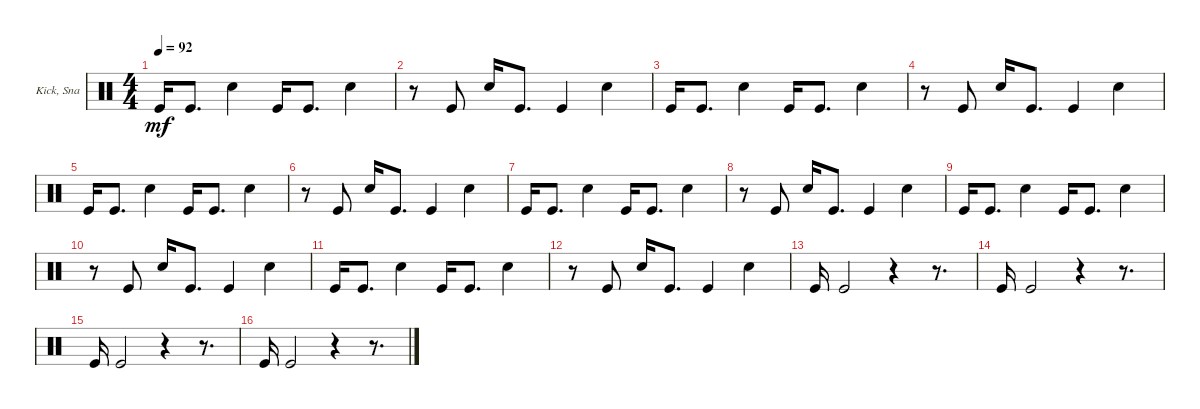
\bracketExtendMode groupsimilarinstruments
\firstSystemTrackNameOrientation horizontal
\otherSystemsTrackNameOrientation horizontal
\track (" Kick, Snare" " Kick, Sna") {instrument percussion}
\staff {score}
\articulation defaults
\ts (4 4)
\tempo 92
\clef neutral
\ks c "Kick (hit)".16{dy mf} "Kick (hit)".8{d} "Snare (hit) 2".4 "Kick (hit)".16 "Kick (hit)".8{d} "Snare (hit) 2".4
|
r.8 "Kick (hit)".8 "Snare (hit) 2".16 "Kick (hit)".8{d} "Kick (hit)".4 "Snare (hit) 2".4 |
"Kick (hit)".16 "Kick (hit)".8{d} "Snare (hit) 2".4 "Kick (hit)".16 "Kick (hit)".8{d} "Snare (hit) 2".4 |
r.8 "Kick (hit)".8 "Snare (hit) 2".16 "Kick (hit)".8{d} "Kick (hit)".4 "Snare (hit) 2".4 |
"Kick (hit)".16 "Kick (hit)".8{d} "Snare (hit) 2".4 "Kick (hit)".16 "Kick (hit)".8{d} "Snare (hit) 2".4 |
r.8 "Kick (hit)".8 "Snare (hit) 2".16 "Kick (hit)".8{d} "Kick (hit)".4 "Snare (hit) 2".4 |
"Kick (hit)".16 "Kick (hit)".8{d} "Snare (hit) 2".4 "Kick (hit)".16 "Kick (hit)".8{d} "Snare (hit) 2".4 |
r.8 "Kick (hit)".8 "Snare (hit) 2".16 "Kick (hit)".8{d} "Kick (hit)".4 "Snare (hit) 2".4 |
"Kick (hit)".16 "Kick (hit)".8{d} "Snare (hit) 2".4 "Kick (hit)".16 "Kick (hit)".8{d} "Snare (hit) 2".4 |
r.8 "Kick (hit)".8 "Snare (hit) 2".16 "Kick (hit)".8{d} "Kick (hit)".4 "Snare (hit) 2".4 |
"Kick (hit)".16 "Kick (hit)".8{d} "Snare (hit) 2".4 "Kick (hit)".16 "Kick (hit)".8{d} "Snare (hit) 2".4 |
r.8 "Kick (hit)".8 "Snare (hit) 2".16 "Kick (hit)".8{d} "Kick (hit)".4 "Snare (hit) 2".4 |
"Kick (hit)".16 "Kick (hit)".2 r.4 r.8{d} |
"Kick (hit)".16 "Kick (hit)".2 r.4 r.8{d} |
"Kick (hit)".16 "Kick (hit)".2 r.4 r.8{d} |
"Kick (hit)".16 "Kick (hit)".2 r.4 r.8{d}
